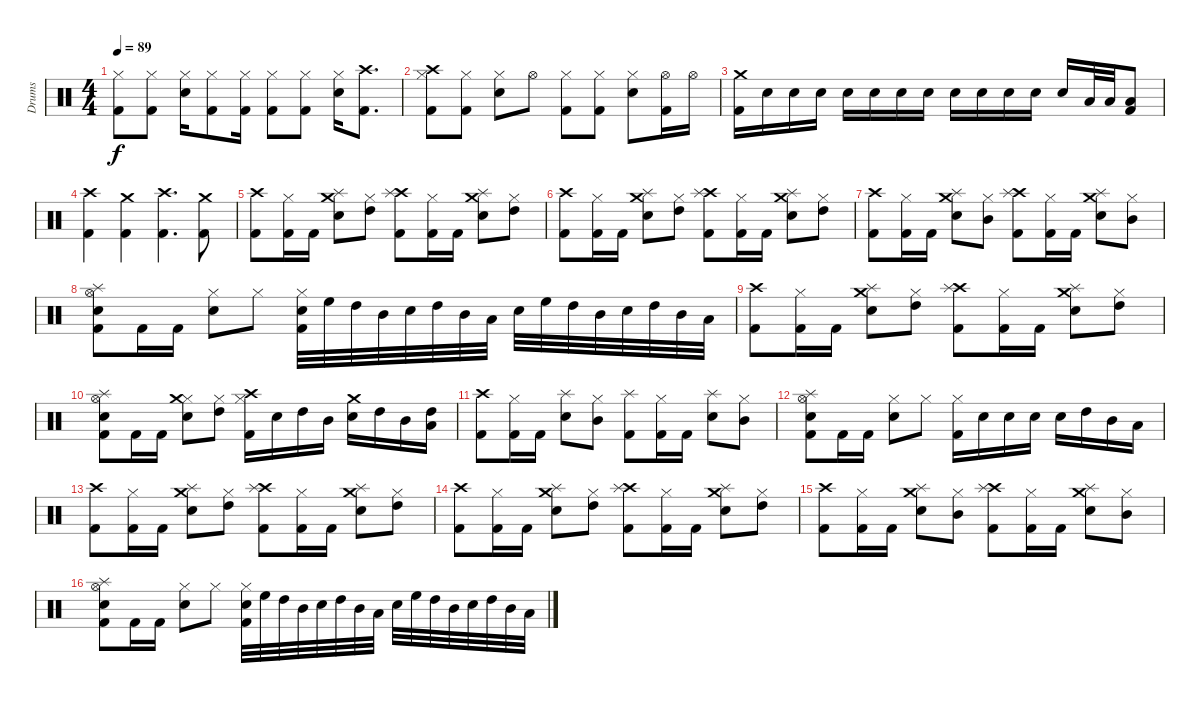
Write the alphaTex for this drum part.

\track ("Drums" "Drums") {instrument percussion}
\staff {score}
\articulation defaults
\ts (4 4)
\tempo 89
\clef neutral
\ks c
("Kick (hit) 2" "Hi-Hat (closed)").8{dy f} ("Kick (hit) 2" "Hi-Hat (closed)").8 ("Snare (hit) 2" "Hi-Hat (closed)").16 ("Kick (hit) 2" "Hi-Hat (closed)").8 ("Kick (hit) 2" "Hi-Hat (closed)").16 ("Kick (hit) 2" "Hi-Hat (closed)").8 ("Kick (hit) 2" "Hi-Hat (closed)").8 ("Snare (hit) 2" "Hi-Hat (closed)").16 ("Kick (hit) 2" "Crash high (hit)").8{d} |
("Kick (hit) 2" "Hi-Hat (closed)" "Crash high (hit)").8 ("Kick (hit) 2" "Hi-Hat (closed)").8 ("Snare (hit) 2" "Hi-Hat (closed)").8 "Hi-Hat (open)".8 ("Kick (hit) 2" "Hi-Hat (closed)").8 ("Kick (hit) 2" "Hi-Hat (closed)").8 ("Snare (hit) 2" "Hi-Hat (closed)").8 ("Kick (hit) 2" "Hi-Hat (open)").16 "Hi-Hat (open)".16 |
("Kick (hit) 2" "Crash medium (hit)").16 "Snare (hit) 2".16 "Snare (hit) 2".16 "Snare (hit) 2".16 "Snare (hit) 2".16 "Snare (hit) 2".16 "Snare (hit) 2".16 "Snare (hit) 2".16 "Snare (hit) 2".16 "Snare (hit) 2".16 "Snare (hit) 2".16 "Snare (hit) 2".16 "Snare (hit) 2".16 "Low Tom (hit)".32 "Low Tom (hit)".32 ("Kick (hit) 2" "Low Tom (hit)").8 |
("Kick (hit) 2" "Crash high (hit)").4 ("Kick (hit) 2" "Crash medium (hit)").4 ("Kick (hit) 2" "Crash high (hit)").4{d} ("Kick (hit) 2" "Crash medium (hit)").8 |
("Kick (hit) 2" "Crash high (hit)").8 ("Kick (hit) 2" "Hi-Hat (closed)").16 "Kick (hit) 2".16 ("Snare (hit) 2" "Crash medium (hit)" "Splash (hit)").8 ("Hi-Hat (closed)" "High Tom (hit)").8 ("Kick (hit) 2" "Crash high (hit)" "Splash (hit)").8 ("Kick (hit) 2" "Hi-Hat (closed)").16 "Kick (hit) 2".16 ("Snare (hit) 2" "Crash medium (hit)" "Splash (hit)").8 ("Hi-Hat (closed)" "High Tom (hit)").8 |
("Kick (hit) 2" "Crash high (hit)").8 ("Kick (hit) 2" "Hi-Hat (closed)").16 "Kick (hit) 2".16 ("Snare (hit) 2" "Crash medium (hit)" "Splash (hit)").8 ("Hi-Hat (closed)" "High Tom (hit)").8 ("Kick (hit) 2" "Crash high (hit)" "Splash (hit)").8 ("Kick (hit) 2" "Hi-Hat (closed)").16 "Kick (hit) 2".16 ("Snare (hit) 2" "Crash medium (hit)" "Splash (hit)").8 ("Hi-Hat (closed)" "High Tom (hit)").8 |
("Kick (hit) 2" "Crash high (hit)").8 ("Kick (hit) 2" "Hi-Hat (closed)").16 "Kick (hit) 2".16 ("Snare (hit) 2" "Crash medium (hit)" "Splash (hit)").8 ("Hi-Hat (closed)" "Mid Tom (hit)").8 ("Kick (hit) 2" "Crash high (hit)" "Splash (hit)").8 ("Kick (hit) 2" "Hi-Hat (closed)").16 "Kick (hit) 2".16 ("Snare (hit) 2" "Crash medium (hit)" "Splash (hit)").8 ("Hi-Hat (closed)" "Mid Tom (hit)").8 |
("Kick (hit) 2" "Snare (hit) 2" "Hi-Hat (open)" "Splash (hit)").8 "Kick (hit) 2".16 "Kick (hit) 2".16 ("Snare (hit) 2" "Hi-Hat (closed)").8 "Hi-Hat (closed)".8 ("Kick (hit) 2" "Snare (hit) 2" "Hi-Hat (closed)").32 "High Floor Tom (hit)".32 "High Tom (hit)".32 "Mid Tom (hit)".32 "Snare (hit) 2".32 "High Tom (hit)".32 "Mid Tom (hit)".32 "Low Tom (hit)".32 "Snare (hit) 2".32 "High Floor Tom (hit)".32 "High Tom (hit)".32 "Mid Tom (hit)".32 "Snare (hit) 2".32 "High Tom (hit)".32 "Mid Tom (hit)".32 "Low Tom (hit)".32 |
("Kick (hit) 2" "Crash high (hit)").8 ("Kick (hit) 2" "Hi-Hat (closed)").16 "Kick (hit) 2".16 ("Snare (hit) 2" "Crash medium (hit)" "Splash (hit)").8 ("Hi-Hat (closed)" "High Tom (hit)").8 ("Kick (hit) 2" "Crash high (hit)" "Splash (hit)").8 ("Kick (hit) 2" "Hi-Hat (closed)").16 "Kick (hit) 2".16 ("Snare (hit) 2" "Crash medium (hit)" "Splash (hit)").8 ("Hi-Hat (closed)" "High Tom (hit)").8 |
("Kick (hit) 2" "Snare (hit) 2" "Hi-Hat (open)" "Splash (hit)").8 "Kick (hit) 2".16 "Kick (hit) 2".16 ("Snare (hit) 2" "Hi-Hat (closed)" "Crash medium (hit)").8 ("Hi-Hat (closed)" "High Tom (hit)").8 ("Kick (hit) 2" "Hi-Hat (closed)" "Crash high (hit)").16 "Snare (hit) 2".16 "High Tom (hit)".16 "Mid Tom (hit)".16 ("Snare (hit) 2" "Crash medium (hit)").16 "High Tom (hit)".16 "Mid Tom (hit)".16 ("Low Tom (hit)" "High Tom (hit)").16 |
("Kick (hit) 2" "Crash high (hit)").8 ("Kick (hit) 2" "Hi-Hat (closed)").16 "Kick (hit) 2".16 ("Snare (hit) 2" "Splash (hit)").8 ("Hi-Hat (closed)" "Mid Tom (hit)").8 ("Kick (hit) 2" "Splash (hit)").8 ("Kick (hit) 2" "Hi-Hat (closed)").16 "Kick (hit) 2".16 ("Snare (hit) 2" "Splash (hit)").8 ("Hi-Hat (closed)" "Mid Tom (hit)").8 |
("Kick (hit) 2" "Snare (hit) 2" "Hi-Hat (open)" "Splash (hit)").8 "Kick (hit) 2".16 "Kick (hit) 2".16 ("Snare (hit) 2" "Hi-Hat (closed)").8 "Hi-Hat (closed)".8 ("Kick (hit) 2" "Hi-Hat (closed)").16 "Snare (hit) 2".16 "Snare (hit) 2".16 "Snare (hit) 2".16 "Snare (hit) 2".16 "High Tom (hit)".16 "Mid Tom (hit)".16 "Low Tom (hit)".16 |
("Kick (hit) 2" "Crash high (hit)").8 ("Kick (hit) 2" "Hi-Hat (closed)").16 "Kick (hit) 2".16 ("Snare (hit) 2" "Crash medium (hit)" "Splash (hit)").8 ("Hi-Hat (closed)" "High Tom (hit)").8 ("Kick (hit) 2" "Crash high (hit)" "Splash (hit)").8 ("Kick (hit) 2" "Hi-Hat (closed)").16 "Kick (hit) 2".16 ("Snare (hit) 2" "Crash medium (hit)" "Splash (hit)").8 ("Hi-Hat (closed)" "High Tom (hit)").8 |
("Kick (hit) 2" "Crash high (hit)").8 ("Kick (hit) 2" "Hi-Hat (closed)").16 "Kick (hit) 2".16 ("Snare (hit) 2" "Crash medium (hit)" "Splash (hit)").8 ("Hi-Hat (closed)" "High Tom (hit)").8 ("Kick (hit) 2" "Crash high (hit)" "Splash (hit)").8 ("Kick (hit) 2" "Hi-Hat (closed)").16 "Kick (hit) 2".16 ("Snare (hit) 2" "Crash medium (hit)" "Splash (hit)").8 ("Hi-Hat (closed)" "High Tom (hit)").8 |
("Kick (hit) 2" "Crash high (hit)").8 ("Kick (hit) 2" "Hi-Hat (closed)").16 "Kick (hit) 2".16 ("Snare (hit) 2" "Crash medium (hit)" "Splash (hit)").8 ("Hi-Hat (closed)" "Mid Tom (hit)").8 ("Kick (hit) 2" "Crash high (hit)" "Splash (hit)").8 ("Kick (hit) 2" "Hi-Hat (closed)").16 "Kick (hit) 2".16 ("Snare (hit) 2" "Crash medium (hit)" "Splash (hit)").8 ("Hi-Hat (closed)" "Mid Tom (hit)").8 |
("Kick (hit) 2" "Snare (hit) 2" "Hi-Hat (open)" "Splash (hit)").8 "Kick (hit) 2".16 "Kick (hit) 2".16 ("Snare (hit) 2" "Hi-Hat (closed)").8 "Hi-Hat (closed)".8 ("Kick (hit) 2" "Snare (hit) 2" "Hi-Hat (closed)").32 "High Floor Tom (hit)".32 "High Tom (hit)".32 "Mid Tom (hit)".32 "Snare (hit) 2".32 "High Tom (hit)".32 "Mid Tom (hit)".32 "Low Tom (hit)".32 "Snare (hit) 2".32 "High Floor Tom (hit)".32 "High Tom (hit)".32 "Mid Tom (hit)".32 "Snare (hit) 2".32 "High Tom (hit)".32 "Mid Tom (hit)".32 "Low Tom (hit)".32
